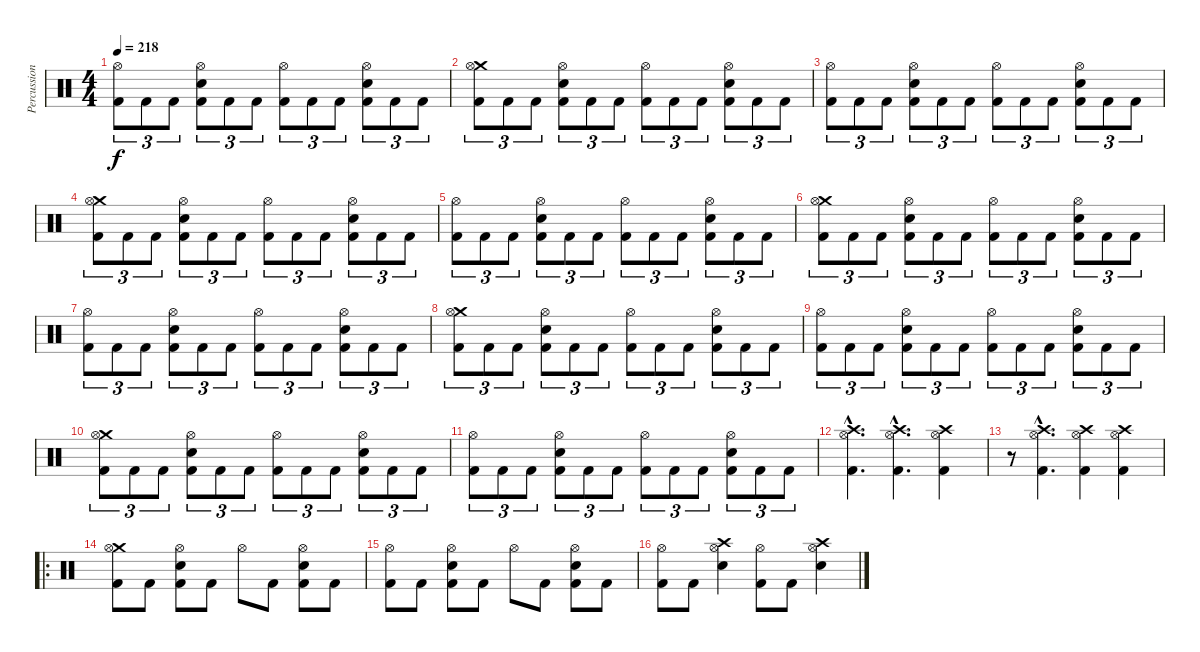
\track ("Percussion" "Percussion") {instrument percussion}
\staff {score}
\articulation defaults
\ts (4 4)
\tempo 218
\clef neutral
\ks c
("Hi-Hat (open)" "Kick (hit) 2").8{tu (3 2) dy f} "Kick (hit) 2".8{tu (3 2)} "Kick (hit) 2".8{tu (3 2)} ("Hi-Hat (open)" "Electric Snare (hit)" "Kick (hit) 2").8{tu (3 2)} "Kick (hit) 2".8{tu (3 2)} "Kick (hit) 2".8{tu (3 2)} ("Hi-Hat (open)" "Kick (hit) 2").8{tu (3 2)} "Kick (hit) 2".8{tu (3 2)} "Kick (hit) 2".8{tu (3 2)} ("Hi-Hat (open)" "Electric Snare (hit)" "Kick (hit) 2").8{tu (3 2)} "Kick (hit) 2".8{tu (3 2)} "Kick (hit) 2".8{tu (3 2)} |
("Crash medium (hit)" "Hi-Hat (open)" "Kick (hit) 2").8{tu (3 2)} "Kick (hit) 2".8{tu (3 2)} "Kick (hit) 2".8{tu (3 2)} ("Hi-Hat (open)" "Electric Snare (hit)" "Kick (hit) 2").8{tu (3 2)} "Kick (hit) 2".8{tu (3 2)} "Kick (hit) 2".8{tu (3 2)} ("Hi-Hat (open)" "Kick (hit) 2").8{tu (3 2)} "Kick (hit) 2".8{tu (3 2)} "Kick (hit) 2".8{tu (3 2)} ("Hi-Hat (open)" "Electric Snare (hit)" "Kick (hit) 2").8{tu (3 2)} "Kick (hit) 2".8{tu (3 2)} "Kick (hit) 2".8{tu (3 2)} |
("Hi-Hat (open)" "Kick (hit) 2").8{tu (3 2)} "Kick (hit) 2".8{tu (3 2)} "Kick (hit) 2".8{tu (3 2)} ("Hi-Hat (open)" "Electric Snare (hit)" "Kick (hit) 2").8{tu (3 2)} "Kick (hit) 2".8{tu (3 2)} "Kick (hit) 2".8{tu (3 2)} ("Hi-Hat (open)" "Kick (hit) 2").8{tu (3 2)} "Kick (hit) 2".8{tu (3 2)} "Kick (hit) 2".8{tu (3 2)} ("Hi-Hat (open)" "Electric Snare (hit)" "Kick (hit) 2").8{tu (3 2)} "Kick (hit) 2".8{tu (3 2)} "Kick (hit) 2".8{tu (3 2)} |
("Crash medium (hit)" "Hi-Hat (open)" "Kick (hit) 2").8{tu (3 2)} "Kick (hit) 2".8{tu (3 2)} "Kick (hit) 2".8{tu (3 2)} ("Hi-Hat (open)" "Electric Snare (hit)" "Kick (hit) 2").8{tu (3 2)} "Kick (hit) 2".8{tu (3 2)} "Kick (hit) 2".8{tu (3 2)} ("Hi-Hat (open)" "Kick (hit) 2").8{tu (3 2)} "Kick (hit) 2".8{tu (3 2)} "Kick (hit) 2".8{tu (3 2)} ("Hi-Hat (open)" "Electric Snare (hit)" "Kick (hit) 2").8{tu (3 2)} "Kick (hit) 2".8{tu (3 2)} "Kick (hit) 2".8{tu (3 2)} |
("Hi-Hat (open)" "Kick (hit) 2").8{tu (3 2)} "Kick (hit) 2".8{tu (3 2)} "Kick (hit) 2".8{tu (3 2)} ("Hi-Hat (open)" "Electric Snare (hit)" "Kick (hit) 2").8{tu (3 2)} "Kick (hit) 2".8{tu (3 2)} "Kick (hit) 2".8{tu (3 2)} ("Hi-Hat (open)" "Kick (hit) 2").8{tu (3 2)} "Kick (hit) 2".8{tu (3 2)} "Kick (hit) 2".8{tu (3 2)} ("Hi-Hat (open)" "Electric Snare (hit)" "Kick (hit) 2").8{tu (3 2)} "Kick (hit) 2".8{tu (3 2)} "Kick (hit) 2".8{tu (3 2)} |
("Crash medium (hit)" "Hi-Hat (open)" "Kick (hit) 2").8{tu (3 2)} "Kick (hit) 2".8{tu (3 2)} "Kick (hit) 2".8{tu (3 2)} ("Hi-Hat (open)" "Electric Snare (hit)" "Kick (hit) 2").8{tu (3 2)} "Kick (hit) 2".8{tu (3 2)} "Kick (hit) 2".8{tu (3 2)} ("Hi-Hat (open)" "Kick (hit) 2").8{tu (3 2)} "Kick (hit) 2".8{tu (3 2)} "Kick (hit) 2".8{tu (3 2)} ("Hi-Hat (open)" "Electric Snare (hit)" "Kick (hit) 2").8{tu (3 2)} "Kick (hit) 2".8{tu (3 2)} "Kick (hit) 2".8{tu (3 2)} |
("Hi-Hat (open)" "Kick (hit) 2").8{tu (3 2)} "Kick (hit) 2".8{tu (3 2)} "Kick (hit) 2".8{tu (3 2)} ("Hi-Hat (open)" "Electric Snare (hit)" "Kick (hit) 2").8{tu (3 2)} "Kick (hit) 2".8{tu (3 2)} "Kick (hit) 2".8{tu (3 2)} ("Hi-Hat (open)" "Kick (hit) 2").8{tu (3 2)} "Kick (hit) 2".8{tu (3 2)} "Kick (hit) 2".8{tu (3 2)} ("Hi-Hat (open)" "Electric Snare (hit)" "Kick (hit) 2").8{tu (3 2)} "Kick (hit) 2".8{tu (3 2)} "Kick (hit) 2".8{tu (3 2)} |
("Crash medium (hit)" "Hi-Hat (open)" "Kick (hit) 2").8{tu (3 2)} "Kick (hit) 2".8{tu (3 2)} "Kick (hit) 2".8{tu (3 2)} ("Hi-Hat (open)" "Electric Snare (hit)" "Kick (hit) 2").8{tu (3 2)} "Kick (hit) 2".8{tu (3 2)} "Kick (hit) 2".8{tu (3 2)} ("Hi-Hat (open)" "Kick (hit) 2").8{tu (3 2)} "Kick (hit) 2".8{tu (3 2)} "Kick (hit) 2".8{tu (3 2)} ("Hi-Hat (open)" "Electric Snare (hit)" "Kick (hit) 2").8{tu (3 2)} "Kick (hit) 2".8{tu (3 2)} "Kick (hit) 2".8{tu (3 2)} |
("Hi-Hat (open)" "Kick (hit) 2").8{tu (3 2)} "Kick (hit) 2".8{tu (3 2)} "Kick (hit) 2".8{tu (3 2)} ("Hi-Hat (open)" "Electric Snare (hit)" "Kick (hit) 2").8{tu (3 2)} "Kick (hit) 2".8{tu (3 2)} "Kick (hit) 2".8{tu (3 2)} ("Hi-Hat (open)" "Kick (hit) 2").8{tu (3 2)} "Kick (hit) 2".8{tu (3 2)} "Kick (hit) 2".8{tu (3 2)} ("Hi-Hat (open)" "Electric Snare (hit)" "Kick (hit) 2").8{tu (3 2)} "Kick (hit) 2".8{tu (3 2)} "Kick (hit) 2".8{tu (3 2)} |
("Crash medium (hit)" "Hi-Hat (open)" "Kick (hit) 2").8{tu (3 2)} "Kick (hit) 2".8{tu (3 2)} "Kick (hit) 2".8{tu (3 2)} ("Hi-Hat (open)" "Electric Snare (hit)" "Kick (hit) 2").8{tu (3 2)} "Kick (hit) 2".8{tu (3 2)} "Kick (hit) 2".8{tu (3 2)} ("Hi-Hat (open)" "Kick (hit) 2").8{tu (3 2)} "Kick (hit) 2".8{tu (3 2)} "Kick (hit) 2".8{tu (3 2)} ("Hi-Hat (open)" "Electric Snare (hit)" "Kick (hit) 2").8{tu (3 2)} "Kick (hit) 2".8{tu (3 2)} "Kick (hit) 2".8{tu (3 2)} |
("Hi-Hat (open)" "Kick (hit) 2").8{tu (3 2)} "Kick (hit) 2".8{tu (3 2)} "Kick (hit) 2".8{tu (3 2)} ("Hi-Hat (open)" "Electric Snare (hit)" "Kick (hit) 2").8{tu (3 2)} "Kick (hit) 2".8{tu (3 2)} "Kick (hit) 2".8{tu (3 2)} ("Hi-Hat (open)" "Kick (hit) 2").8{tu (3 2)} "Kick (hit) 2".8{tu (3 2)} "Kick (hit) 2".8{tu (3 2)} ("Hi-Hat (open)" "Electric Snare (hit)" "Kick (hit) 2").8{tu (3 2)} "Kick (hit) 2".8{tu (3 2)} "Kick (hit) 2".8{tu (3 2)} |
("Crash high (hit)"{hac} "Hi-Hat (open)"{hac} "Kick (hit) 2"{hac}).4{d} ("Crash high (hit)"{hac} "Hi-Hat (open)"{hac} "Kick (hit) 2"{hac}).4{d} ("Crash high (hit)" "Hi-Hat (open)" "Kick (hit) 2").4 |
r.8 ("Crash high (hit)"{hac} "Hi-Hat (open)"{hac} "Kick (hit) 2"{hac}).4{d} ("Crash high (hit)" "Hi-Hat (open)" "Kick (hit) 2").4 ("Crash high (hit)" "Hi-Hat (open)" "Kick (hit) 2").4 |
\ro
("Crash medium (hit)" "Hi-Hat (open)" "Kick (hit) 2").8 "Kick (hit) 2".8 ("Hi-Hat (open)" "Electric Snare (hit)" "Kick (hit) 2").8 "Kick (hit) 2".8 "Hi-Hat (open)".8 "Kick (hit) 2".8 ("Hi-Hat (open)" "Electric Snare (hit)" "Kick (hit) 2").8 "Kick (hit) 2".8 |
("Hi-Hat (open)" "Kick (hit) 2").8 "Kick (hit) 2".8 ("Hi-Hat (open)" "Electric Snare (hit)" "Kick (hit) 2").8 "Kick (hit) 2".8 "Hi-Hat (open)".8 "Kick (hit) 2".8 ("Hi-Hat (open)" "Electric Snare (hit)" "Kick (hit) 2").8 "Kick (hit) 2".8 |
("Hi-Hat (open)" "Kick (hit) 2").8 "Kick (hit) 2".8 ("Crash high (hit)" "Hi-Hat (open)" "Electric Snare (hit)").4 ("Hi-Hat (open)" "Kick (hit) 2").8 "Kick (hit) 2".8 ("Crash high (hit)" "Hi-Hat (open)" "Electric Snare (hit)").4
